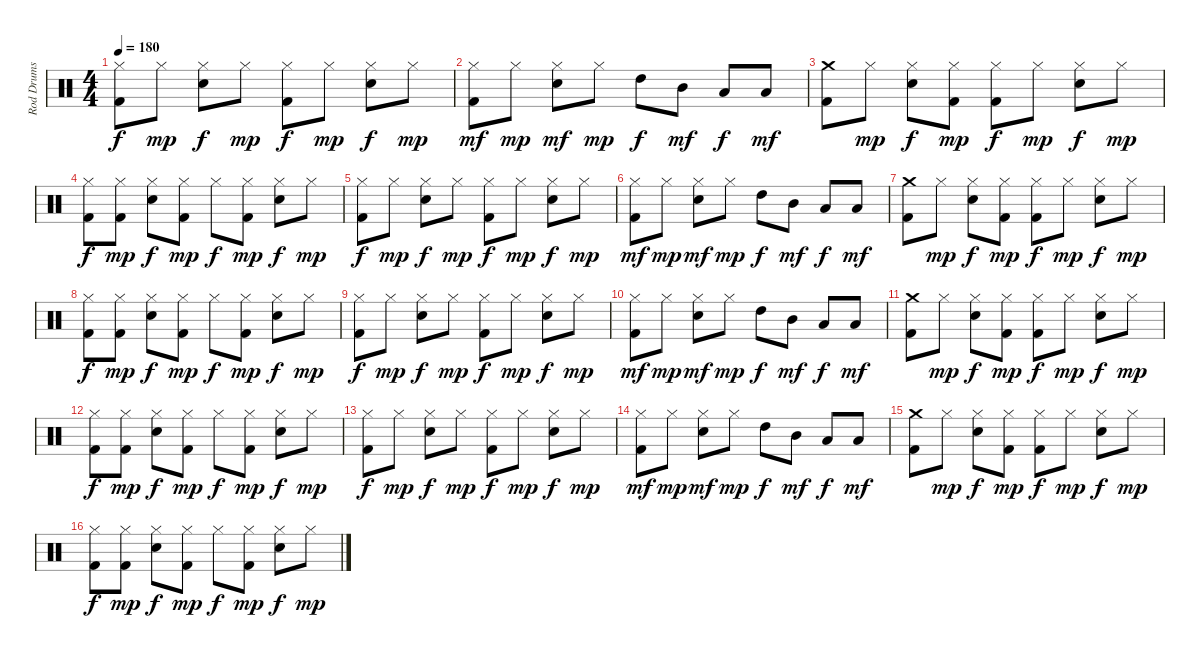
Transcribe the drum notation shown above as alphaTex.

\track ("Rod Drums" "Rod Drums") {instrument percussion}
\staff {score}
\articulation defaults
\ts (4 4)
\tempo 180
\clef neutral
\ks c
("Hi-Hat (closed)" "Kick (hit) 2").8{dy f} "Hi-Hat (closed)".8{dy mp} ("Hi-Hat (closed)" "Snare (hit) 2").8{dy f} "Hi-Hat (closed)".8{dy mp} ("Hi-Hat (closed)" "Kick (hit) 2").8{dy f} "Hi-Hat (closed)".8{dy mp} ("Hi-Hat (closed)" "Snare (hit) 2").8{dy f} "Hi-Hat (closed)".8{dy mp} |
("Hi-Hat (closed)" "Kick (hit) 2").8{dy mf} "Hi-Hat (closed)".8{dy mp} ("Hi-Hat (closed)" "Snare (hit) 2").8{dy mf} "Hi-Hat (closed)".8{dy mp} "High Tom (hit)".8{dy f} "Mid Tom (hit)".8{dy mf} "Low Tom (hit)".8{dy f} "Low Tom (hit)".8{dy mf} |
("Crash medium (hit)" "Kick (hit) 2").8 "Hi-Hat (closed)".8{dy mp} ("Hi-Hat (closed)" "Snare (hit) 2").8{dy f} ("Hi-Hat (closed)" "Kick (hit) 2").8{dy mp} ("Hi-Hat (closed)" "Kick (hit) 2").8{dy f} "Hi-Hat (closed)".8{dy mp} ("Hi-Hat (closed)" "Snare (hit) 2").8{dy f} "Hi-Hat (closed)".8{dy mp} |
("Hi-Hat (closed)" "Kick (hit) 2").8{dy f} ("Hi-Hat (closed)" "Kick (hit) 2").8{dy mp} ("Hi-Hat (closed)" "Snare (hit) 2").8{dy f} ("Hi-Hat (closed)" "Kick (hit) 2").8{dy mp} "Hi-Hat (closed)".8{dy f} ("Hi-Hat (closed)" "Kick (hit) 2").8{dy mp} ("Hi-Hat (closed)" "Snare (hit) 2").8{dy f} "Hi-Hat (closed)".8{dy mp} |
("Hi-Hat (closed)" "Kick (hit) 2").8{dy f} "Hi-Hat (closed)".8{dy mp} ("Hi-Hat (closed)" "Snare (hit) 2").8{dy f} "Hi-Hat (closed)".8{dy mp} ("Hi-Hat (closed)" "Kick (hit) 2").8{dy f} "Hi-Hat (closed)".8{dy mp} ("Hi-Hat (closed)" "Snare (hit) 2").8{dy f} "Hi-Hat (closed)".8{dy mp} |
("Hi-Hat (closed)" "Kick (hit) 2").8{dy mf} "Hi-Hat (closed)".8{dy mp} ("Hi-Hat (closed)" "Snare (hit) 2").8{dy mf} "Hi-Hat (closed)".8{dy mp} "High Tom (hit)".8{dy f} "Mid Tom (hit)".8{dy mf} "Low Tom (hit)".8{dy f} "Low Tom (hit)".8{dy mf} |
("Crash medium (hit)" "Kick (hit) 2").8 "Hi-Hat (closed)".8{dy mp} ("Hi-Hat (closed)" "Snare (hit) 2").8{dy f} ("Hi-Hat (closed)" "Kick (hit) 2").8{dy mp} ("Hi-Hat (closed)" "Kick (hit) 2").8{dy f} "Hi-Hat (closed)".8{dy mp} ("Hi-Hat (closed)" "Snare (hit) 2").8{dy f} "Hi-Hat (closed)".8{dy mp} |
("Hi-Hat (closed)" "Kick (hit) 2").8{dy f} ("Hi-Hat (closed)" "Kick (hit) 2").8{dy mp} ("Hi-Hat (closed)" "Snare (hit) 2").8{dy f} ("Hi-Hat (closed)" "Kick (hit) 2").8{dy mp} "Hi-Hat (closed)".8{dy f} ("Hi-Hat (closed)" "Kick (hit) 2").8{dy mp} ("Hi-Hat (closed)" "Snare (hit) 2").8{dy f} "Hi-Hat (closed)".8{dy mp} |
("Hi-Hat (closed)" "Kick (hit) 2").8{dy f} "Hi-Hat (closed)".8{dy mp} ("Hi-Hat (closed)" "Snare (hit) 2").8{dy f} "Hi-Hat (closed)".8{dy mp} ("Hi-Hat (closed)" "Kick (hit) 2").8{dy f} "Hi-Hat (closed)".8{dy mp} ("Hi-Hat (closed)" "Snare (hit) 2").8{dy f} "Hi-Hat (closed)".8{dy mp} |
("Hi-Hat (closed)" "Kick (hit) 2").8{dy mf} "Hi-Hat (closed)".8{dy mp} ("Hi-Hat (closed)" "Snare (hit) 2").8{dy mf} "Hi-Hat (closed)".8{dy mp} "High Tom (hit)".8{dy f} "Mid Tom (hit)".8{dy mf} "Low Tom (hit)".8{dy f} "Low Tom (hit)".8{dy mf} |
("Crash medium (hit)" "Kick (hit) 2").8 "Hi-Hat (closed)".8{dy mp} ("Hi-Hat (closed)" "Snare (hit) 2").8{dy f} ("Hi-Hat (closed)" "Kick (hit) 2").8{dy mp} ("Hi-Hat (closed)" "Kick (hit) 2").8{dy f} "Hi-Hat (closed)".8{dy mp} ("Hi-Hat (closed)" "Snare (hit) 2").8{dy f} "Hi-Hat (closed)".8{dy mp} |
("Hi-Hat (closed)" "Kick (hit) 2").8{dy f} ("Hi-Hat (closed)" "Kick (hit) 2").8{dy mp} ("Hi-Hat (closed)" "Snare (hit) 2").8{dy f} ("Hi-Hat (closed)" "Kick (hit) 2").8{dy mp} "Hi-Hat (closed)".8{dy f} ("Hi-Hat (closed)" "Kick (hit) 2").8{dy mp} ("Hi-Hat (closed)" "Snare (hit) 2").8{dy f} "Hi-Hat (closed)".8{dy mp} |
("Hi-Hat (closed)" "Kick (hit) 2").8{dy f} "Hi-Hat (closed)".8{dy mp} ("Hi-Hat (closed)" "Snare (hit) 2").8{dy f} "Hi-Hat (closed)".8{dy mp} ("Hi-Hat (closed)" "Kick (hit) 2").8{dy f} "Hi-Hat (closed)".8{dy mp} ("Hi-Hat (closed)" "Snare (hit) 2").8{dy f} "Hi-Hat (closed)".8{dy mp} |
("Hi-Hat (closed)" "Kick (hit) 2").8{dy mf} "Hi-Hat (closed)".8{dy mp} ("Hi-Hat (closed)" "Snare (hit) 2").8{dy mf} "Hi-Hat (closed)".8{dy mp} "High Tom (hit)".8{dy f} "Mid Tom (hit)".8{dy mf} "Low Tom (hit)".8{dy f} "Low Tom (hit)".8{dy mf} |
("Crash medium (hit)" "Kick (hit) 2").8 "Hi-Hat (closed)".8{dy mp} ("Hi-Hat (closed)" "Snare (hit) 2").8{dy f} ("Hi-Hat (closed)" "Kick (hit) 2").8{dy mp} ("Hi-Hat (closed)" "Kick (hit) 2").8{dy f} "Hi-Hat (closed)".8{dy mp} ("Hi-Hat (closed)" "Snare (hit) 2").8{dy f} "Hi-Hat (closed)".8{dy mp} |
("Hi-Hat (closed)" "Kick (hit) 2").8{dy f} ("Hi-Hat (closed)" "Kick (hit) 2").8{dy mp} ("Hi-Hat (closed)" "Snare (hit) 2").8{dy f} ("Hi-Hat (closed)" "Kick (hit) 2").8{dy mp} "Hi-Hat (closed)".8{dy f} ("Hi-Hat (closed)" "Kick (hit) 2").8{dy mp} ("Hi-Hat (closed)" "Snare (hit) 2").8{dy f} "Hi-Hat (closed)".8{dy mp}
